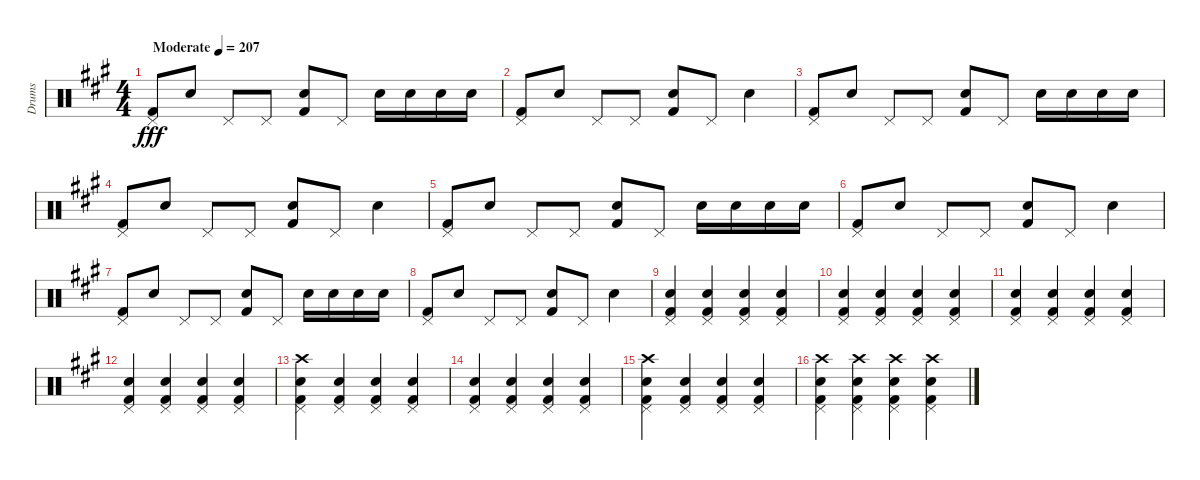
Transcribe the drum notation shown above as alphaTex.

\track ("Drums" "Drums") {instrument percussion}
\staff {score}
\articulation defaults
\ts (4 4)
\tempo (207 "Moderate")
\clef neutral
\ks a
("Pedal Hi-Hat (hit)" "Kick (hit) 2").8{dy fff} "Snare (hit) 2".8 "Pedal Hi-Hat (hit)".8 "Pedal Hi-Hat (hit)".8 ("Snare (hit) 2" "Kick (hit) 2").8 "Pedal Hi-Hat (hit)".8 "Snare (hit) 2".16 "Snare (hit) 2".16 "Snare (hit) 2".16 "Snare (hit) 2".16 |
("Pedal Hi-Hat (hit)" "Kick (hit) 2").8 "Snare (hit) 2".8 "Pedal Hi-Hat (hit)".8 "Pedal Hi-Hat (hit)".8 ("Snare (hit) 2" "Kick (hit) 2").8 "Pedal Hi-Hat (hit)".8 "Snare (hit) 2".4 |
("Pedal Hi-Hat (hit)" "Kick (hit) 2").8 "Snare (hit) 2".8 "Pedal Hi-Hat (hit)".8 "Pedal Hi-Hat (hit)".8 ("Snare (hit) 2" "Kick (hit) 2").8 "Pedal Hi-Hat (hit)".8 "Snare (hit) 2".16 "Snare (hit) 2".16 "Snare (hit) 2".16 "Snare (hit) 2".16 |
("Pedal Hi-Hat (hit)" "Kick (hit) 2").8 "Snare (hit) 2".8 "Pedal Hi-Hat (hit)".8 "Pedal Hi-Hat (hit)".8 ("Snare (hit) 2" "Kick (hit) 2").8 "Pedal Hi-Hat (hit)".8 "Snare (hit) 2".4 |
("Pedal Hi-Hat (hit)" "Kick (hit) 2").8 "Snare (hit) 2".8 "Pedal Hi-Hat (hit)".8 "Pedal Hi-Hat (hit)".8 ("Snare (hit) 2" "Kick (hit) 2").8 "Pedal Hi-Hat (hit)".8 "Snare (hit) 2".16 "Snare (hit) 2".16 "Snare (hit) 2".16 "Snare (hit) 2".16 |
("Pedal Hi-Hat (hit)" "Kick (hit) 2").8 "Snare (hit) 2".8 "Pedal Hi-Hat (hit)".8 "Pedal Hi-Hat (hit)".8 ("Snare (hit) 2" "Kick (hit) 2").8 "Pedal Hi-Hat (hit)".8 "Snare (hit) 2".4 |
("Pedal Hi-Hat (hit)" "Kick (hit) 2").8 "Snare (hit) 2".8 "Pedal Hi-Hat (hit)".8 "Pedal Hi-Hat (hit)".8 ("Snare (hit) 2" "Kick (hit) 2").8 "Pedal Hi-Hat (hit)".8 "Snare (hit) 2".16 "Snare (hit) 2".16 "Snare (hit) 2".16 "Snare (hit) 2".16 |
("Pedal Hi-Hat (hit)" "Kick (hit) 2").8 "Snare (hit) 2".8 "Pedal Hi-Hat (hit)".8 "Pedal Hi-Hat (hit)".8 ("Snare (hit) 2" "Kick (hit) 2").8 "Pedal Hi-Hat (hit)".8 "Snare (hit) 2".4 |
("Pedal Hi-Hat (hit)" "Snare (hit) 2" "Kick (hit) 2").4 ("Pedal Hi-Hat (hit)" "Snare (hit) 2" "Kick (hit) 2").4 ("Pedal Hi-Hat (hit)" "Snare (hit) 2" "Kick (hit) 2").4 ("Pedal Hi-Hat (hit)" "Snare (hit) 2" "Kick (hit) 2").4 |
("Pedal Hi-Hat (hit)" "Snare (hit) 2" "Kick (hit) 2").4 ("Pedal Hi-Hat (hit)" "Snare (hit) 2" "Kick (hit) 2").4 ("Pedal Hi-Hat (hit)" "Snare (hit) 2" "Kick (hit) 2").4 ("Pedal Hi-Hat (hit)" "Snare (hit) 2" "Kick (hit) 2").4 |
("Pedal Hi-Hat (hit)" "Snare (hit) 2" "Kick (hit) 2").4 ("Pedal Hi-Hat (hit)" "Snare (hit) 2" "Kick (hit) 2").4 ("Pedal Hi-Hat (hit)" "Snare (hit) 2" "Kick (hit) 2").4 ("Pedal Hi-Hat (hit)" "Snare (hit) 2" "Kick (hit) 2").4 |
("Pedal Hi-Hat (hit)" "Snare (hit) 2" "Kick (hit) 2").4 ("Pedal Hi-Hat (hit)" "Snare (hit) 2" "Kick (hit) 2").4 ("Pedal Hi-Hat (hit)" "Snare (hit) 2" "Kick (hit) 2").4 ("Pedal Hi-Hat (hit)" "Snare (hit) 2" "Kick (hit) 2").4 |
("Crash high (hit)" "Pedal Hi-Hat (hit)" "Snare (hit) 2" "Kick (hit) 2").4 ("Pedal Hi-Hat (hit)" "Snare (hit) 2" "Kick (hit) 2").4 ("Pedal Hi-Hat (hit)" "Snare (hit) 2" "Kick (hit) 2").4 ("Pedal Hi-Hat (hit)" "Snare (hit) 2" "Kick (hit) 2").4 |
("Pedal Hi-Hat (hit)" "Snare (hit) 2" "Kick (hit) 2").4 ("Pedal Hi-Hat (hit)" "Snare (hit) 2" "Kick (hit) 2").4 ("Pedal Hi-Hat (hit)" "Snare (hit) 2" "Kick (hit) 2").4 ("Pedal Hi-Hat (hit)" "Snare (hit) 2" "Kick (hit) 2").4 |
("Crash high (hit)" "Pedal Hi-Hat (hit)" "Snare (hit) 2" "Kick (hit) 2").4 ("Pedal Hi-Hat (hit)" "Snare (hit) 2" "Kick (hit) 2").4 ("Pedal Hi-Hat (hit)" "Snare (hit) 2" "Kick (hit) 2").4 ("Pedal Hi-Hat (hit)" "Snare (hit) 2" "Kick (hit) 2").4 |
("Crash high (hit)" "Pedal Hi-Hat (hit)" "Snare (hit) 2" "Kick (hit) 2").4 ("Crash high (hit)" "Pedal Hi-Hat (hit)" "Snare (hit) 2" "Kick (hit) 2").4 ("Crash high (hit)" "Pedal Hi-Hat (hit)" "Snare (hit) 2" "Kick (hit) 2").4 ("Crash high (hit)" "Pedal Hi-Hat (hit)" "Snare (hit) 2" "Kick (hit) 2").4
